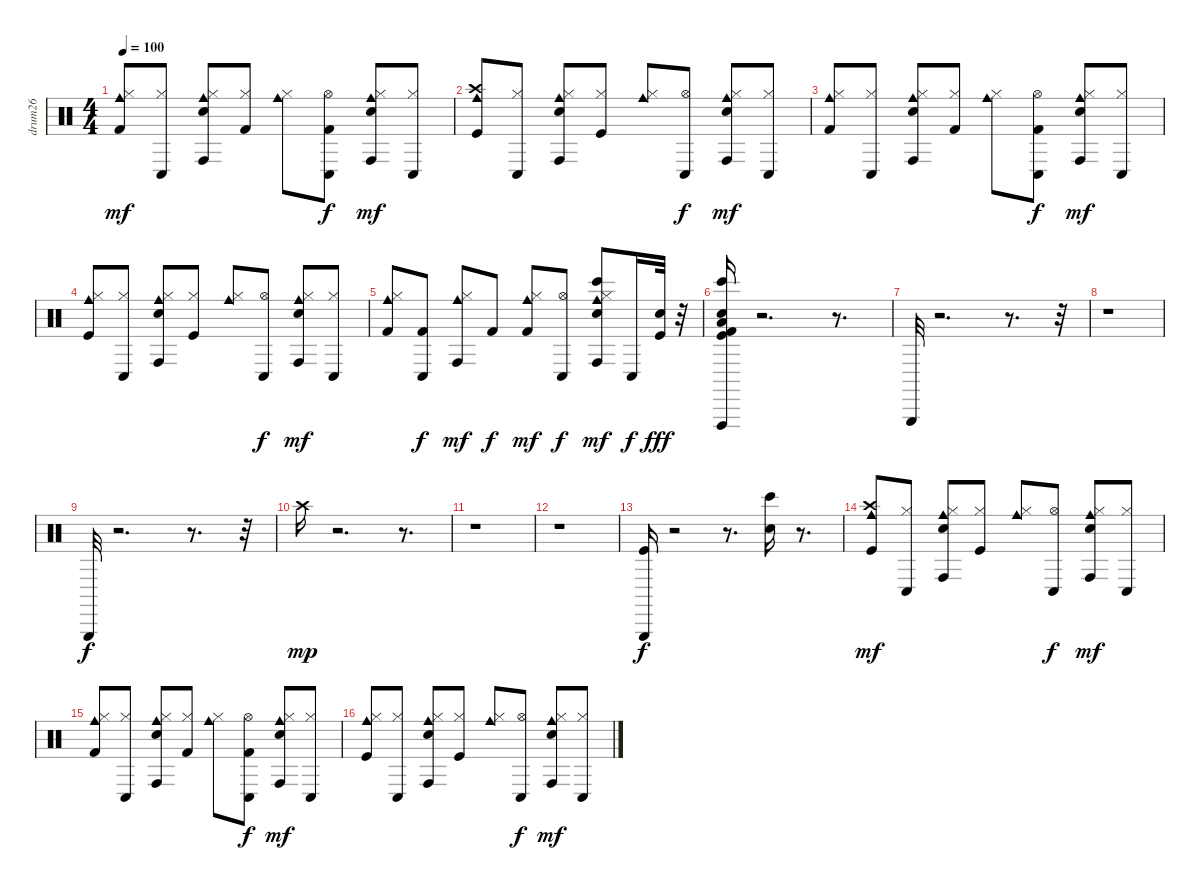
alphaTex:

\track ("drum26" "drum26") {instrument percussion}
\staff {score}
\articulation defaults
\ts (4 4)
\tempo 100
\clef neutral
\ks c
("Cowbell medium (hit)" "Kick (hit) 2" "Hi-Hat (closed)").8{dy mf} ("Hi-Hat (closed)" "Conga low (hit)").8 ("Electric Snare (hit)" "Conga high (hit)" "Hi-Hat (closed)" "Cowbell medium (hit)").8 ("Kick (hit) 2" "Hi-Hat (closed)").8 ("Hi-Hat (closed)" "Cowbell medium (hit)").8 ("Hi-Hat (open)" "Conga low (hit)" "Kick (hit) 2").8{dy f} ("Conga high (hit)" "Electric Snare (hit)" "Hi-Hat (closed)" "Cowbell medium (hit)").8{dy mf} ("Conga low (hit)" "Hi-Hat (closed)").8 |
("Crash high (hit)" "Kick (hit)" "Cowbell medium (hit)").8 ("Conga low (hit)" "Hi-Hat (closed)").8 ("Electric Snare (hit)" "Cowbell medium (hit)" "Conga high (hit)" "Hi-Hat (closed)").8 ("Kick (hit)" "Hi-Hat (closed)").8 ("Cowbell medium (hit)" "Hi-Hat (closed)").8 ("Hi-Hat (open)" "Conga low (hit)").8{dy f} ("Hi-Hat (closed)" "Electric Snare (hit)" "Cowbell medium (hit)" "Conga high (hit)").8{dy mf} ("Conga low (hit)" "Hi-Hat (closed)").8 |
("Kick (hit) 2" "Hi-Hat (closed)" "Cowbell medium (hit)").8 ("Hi-Hat (closed)" "Conga low (hit)").8 ("Conga high (hit)" "Electric Snare (hit)" "Hi-Hat (closed)" "Cowbell medium (hit)").8 ("Kick (hit) 2" "Hi-Hat (closed)").8 ("Hi-Hat (closed)" "Cowbell medium (hit)").8 ("Conga low (hit)" "Kick (hit) 2" "Hi-Hat (open)").8{dy f} ("Cowbell medium (hit)" "Hi-Hat (closed)" "Conga high (hit)" "Electric Snare (hit)").8{dy mf} ("Conga low (hit)" "Hi-Hat (closed)").8 |
("Cowbell medium (hit)" "Kick (hit)" "Hi-Hat (closed)").8 ("Conga low (hit)" "Hi-Hat (closed)").8 ("Cowbell medium (hit)" "Electric Snare (hit)" "Hi-Hat (closed)" "Conga high (hit)").8 ("Kick (hit)" "Hi-Hat (closed)").8 ("Hi-Hat (closed)" "Cowbell medium (hit)").8 ("Conga low (hit)" "Hi-Hat (open)").8{dy f} ("Hi-Hat (closed)" "Conga high (hit)" "Electric Snare (hit)" "Cowbell medium (hit)").8{dy mf} ("Hi-Hat (closed)" "Conga low (hit)").8 |
("Kick (hit) 2" "Cowbell medium (hit)" "Hi-Hat (closed)").8 ("Conga low (hit)" "Kick (hit) 2").8{dy f} ("Conga high (hit)" "Cowbell medium (hit)" "Hi-Hat (closed)").8{dy mf} "Kick (hit) 2".8{dy f} ("Hi-Hat (closed)" "Cowbell medium (hit)" "Kick (hit) 2").8{dy mf} ("Conga low (hit)" "Hi-Hat (open)").8{dy f} ("Cowbell medium (hit)" "Conga high (hit)" "Hi-Hat (closed)" "Electric Snare (hit)" "Bongo High (hit)").8{dy mf} "Conga low (hit)".16{dy f} ("Kick (hit)" "Hand Clap (hit)").32{dy fff volume 16} r.32 |
("Kick (hit)" "Vibraslap (hit)" "Hand Clap (hit)" "Low Floor Tom (hit)" "Bongo High (hit)" "Kick (hit) 2").16 r.2{d} r.8{d} |
"Triangle (hit)".32 r.2{d} r.8{d} r.32 |
r.1 |
"Triangle (hit)".32{dy f} r.2{d} r.8{d} r.32 |
"Crash high (hit)".16{dy mp volume 10} r.2{d} r.8{d} |
r.1 |
r.1 |
("Kick (hit)" "Triangle (hit)").16{dy f} r.2 r.8{d} ("Bongo High (hit)" "Snare (hit) 2").16 r.8{d} |
("Kick (hit)" "Cowbell medium (hit)" "Crash high (hit)").8{dy mf} ("Hi-Hat (closed)" "Conga low (hit)").8 ("Electric Snare (hit)" "Conga high (hit)" "Hi-Hat (closed)" "Cowbell medium (hit)").8 ("Kick (hit)" "Hi-Hat (closed)").8 ("Hi-Hat (closed)" "Cowbell medium (hit)").8 ("Hi-Hat (open)" "Conga low (hit)").8{dy f} ("Electric Snare (hit)" "Hi-Hat (closed)" "Cowbell medium (hit)" "Conga high (hit)").8{dy mf} ("Hi-Hat (closed)" "Conga low (hit)").8 |
("Cowbell medium (hit)" "Kick (hit) 2" "Hi-Hat (closed)").8 ("Conga low (hit)" "Hi-Hat (closed)").8 ("Cowbell medium (hit)" "Hi-Hat (closed)" "Conga high (hit)" "Electric Snare (hit)").8 ("Kick (hit) 2" "Hi-Hat (closed)").8 ("Hi-Hat (closed)" "Cowbell medium (hit)").8 ("Kick (hit) 2" "Hi-Hat (open)" "Conga low (hit)").8{dy f} ("Electric Snare (hit)" "Hi-Hat (closed)" "Cowbell medium (hit)" "Conga high (hit)").8{dy mf} ("Hi-Hat (closed)" "Conga low (hit)").8 |
("Kick (hit)" "Hi-Hat (closed)" "Cowbell medium (hit)").8 ("Hi-Hat (closed)" "Conga low (hit)").8 ("Cowbell medium (hit)" "Conga high (hit)" "Electric Snare (hit)" "Hi-Hat (closed)").8 ("Kick (hit)" "Hi-Hat (closed)").8 ("Cowbell medium (hit)" "Hi-Hat (closed)").8 ("Hi-Hat (open)" "Conga low (hit)").8{dy f} ("Cowbell medium (hit)" "Electric Snare (hit)" "Hi-Hat (closed)" "Conga high (hit)").8{dy mf} ("Hi-Hat (closed)" "Conga low (hit)").8
